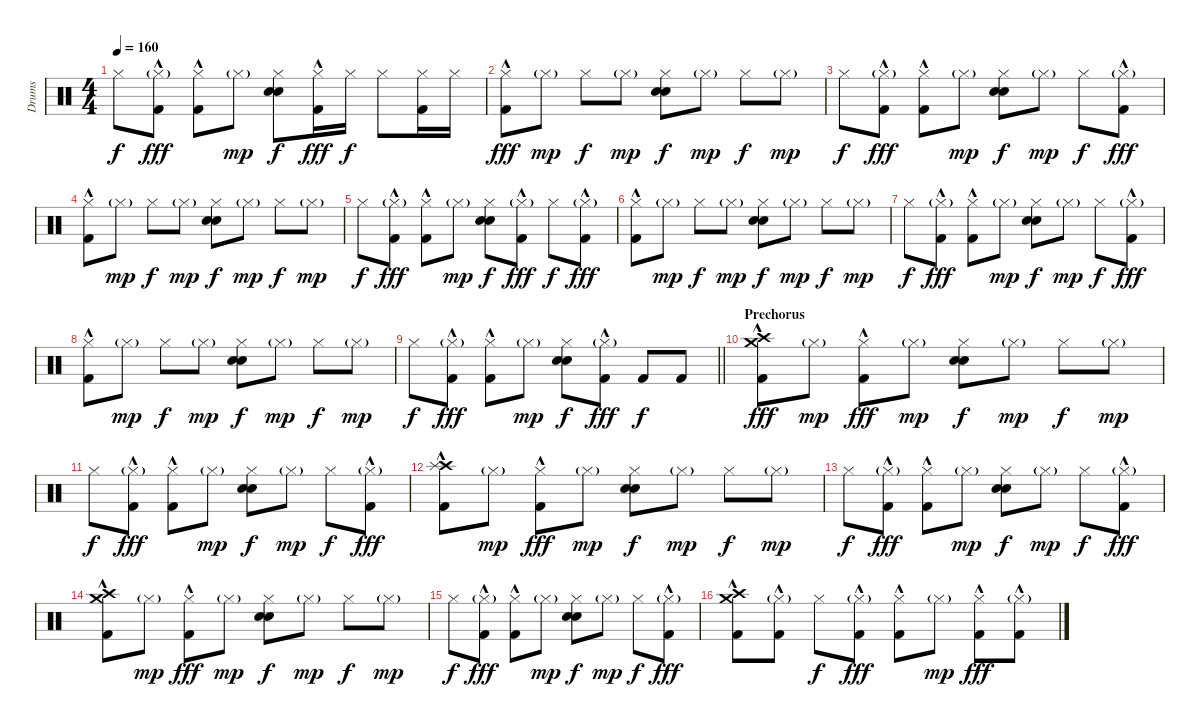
\track ("Drums" "Drums") {instrument percussion}
\staff {score}
\articulation defaults
\ts (4 4)
\tempo 160
\clef neutral
\ks c "Hi-Hat (closed)".8{dy f}
("Hi-Hat (closed)"{g} "Kick (hit) 2"{hac}).8{dy fff} ("Hi-Hat (closed)" "Kick (hit) 2"{hac}).8 "Hi-Hat (closed)"{g}.8{dy mp} ("Hi-Hat (closed)" "Hand Clap (hit)" "Electric Snare (hit)").8{dy f} ("Hi-Hat (closed)" "Kick (hit) 2"{hac}).16{dy fff} "Hi-Hat (closed)".16{dy f} "Hi-Hat (closed)".8 ("Hi-Hat (closed)" "Kick (hit) 2").16 "Hi-Hat (closed)".16 |
("Hi-Hat (closed)" "Kick (hit) 2"{hac}).8{dy fff} "Hi-Hat (closed)"{g}.8{dy mp} "Hi-Hat (closed)".8{dy f} "Hi-Hat (closed)"{g}.8{dy mp} ("Hi-Hat (closed)" "Hand Clap (hit)" "Electric Snare (hit)").8{dy f} "Hi-Hat (closed)"{g}.8{dy mp} "Hi-Hat (closed)".8{dy f} "Hi-Hat (closed)"{g}.8{dy mp} |
"Hi-Hat (closed)".8{dy f} ("Hi-Hat (closed)"{g} "Kick (hit) 2"{hac}).8{dy fff} ("Hi-Hat (closed)" "Kick (hit) 2"{hac}).8 "Hi-Hat (closed)"{g}.8{dy mp} ("Hi-Hat (closed)" "Hand Clap (hit)" "Electric Snare (hit)").8{dy f} "Hi-Hat (closed)"{g}.8{dy mp} "Hi-Hat (closed)".8{dy f} ("Hi-Hat (closed)"{g} "Kick (hit) 2"{hac}).8{dy fff} |
("Hi-Hat (closed)" "Kick (hit) 2"{hac}).8 "Hi-Hat (closed)"{g}.8{dy mp} "Hi-Hat (closed)".8{dy f} "Hi-Hat (closed)"{g}.8{dy mp} ("Hi-Hat (closed)" "Hand Clap (hit)" "Electric Snare (hit)").8{dy f} "Hi-Hat (closed)"{g}.8{dy mp} "Hi-Hat (closed)".8{dy f} "Hi-Hat (closed)"{g}.8{dy mp} |
"Hi-Hat (closed)".8{dy f} ("Hi-Hat (closed)"{g} "Kick (hit) 2"{hac}).8{dy fff} ("Hi-Hat (closed)" "Kick (hit) 2"{hac}).8 "Hi-Hat (closed)"{g}.8{dy mp} ("Hi-Hat (closed)" "Hand Clap (hit)" "Electric Snare (hit)").8{dy f} ("Hi-Hat (closed)"{g} "Kick (hit) 2"{hac}).8{dy fff} "Hi-Hat (closed)".8{dy f} ("Hi-Hat (closed)"{g} "Kick (hit) 2"{hac}).8{dy fff} |
("Hi-Hat (closed)" "Kick (hit) 2"{hac}).8 "Hi-Hat (closed)"{g}.8{dy mp} "Hi-Hat (closed)".8{dy f} "Hi-Hat (closed)"{g}.8{dy mp} ("Hi-Hat (closed)" "Hand Clap (hit)" "Electric Snare (hit)").8{dy f} "Hi-Hat (closed)"{g}.8{dy mp} "Hi-Hat (closed)".8{dy f} "Hi-Hat (closed)"{g}.8{dy mp} |
"Hi-Hat (closed)".8{dy f} ("Hi-Hat (closed)"{g} "Kick (hit) 2"{hac}).8{dy fff} ("Hi-Hat (closed)" "Kick (hit) 2"{hac}).8 "Hi-Hat (closed)"{g}.8{dy mp} ("Hi-Hat (closed)" "Hand Clap (hit)" "Electric Snare (hit)").8{dy f} "Hi-Hat (closed)"{g}.8{dy mp} "Hi-Hat (closed)".8{dy f} ("Hi-Hat (closed)"{g} "Kick (hit) 2"{hac}).8{dy fff} |
("Hi-Hat (closed)" "Kick (hit) 2"{hac}).8 "Hi-Hat (closed)"{g}.8{dy mp} "Hi-Hat (closed)".8{dy f} "Hi-Hat (closed)"{g}.8{dy mp} ("Hi-Hat (closed)" "Hand Clap (hit)" "Electric Snare (hit)").8{dy f} "Hi-Hat (closed)"{g}.8{dy mp} "Hi-Hat (closed)".8{dy f} "Hi-Hat (closed)"{g}.8{dy mp} |
\barLineRight lightlight "Hi-Hat (closed)".8{dy f}
("Hi-Hat (closed)"{g} "Kick (hit) 2"{hac}).8{dy fff} ("Hi-Hat (closed)" "Kick (hit) 2"{hac}).8 "Hi-Hat (closed)"{g}.8{dy mp} ("Hi-Hat (closed)" "Hand Clap (hit)" "Electric Snare (hit)").8{dy f} ("Hi-Hat (closed)"{g} "Kick (hit) 2"{hac}).8{dy fff} "Kick (hit) 2".8{dy f} "Kick (hit) 2".8 |
\section ("" "Prechorus")
("Crash high (hit)" "Crash medium (hit)" "Kick (hit) 2"{hac}).8{dy fff} "Hi-Hat (closed)"{g}.8{dy mp} ("Hi-Hat (closed)" "Kick (hit) 2"{hac}).8{dy fff} "Hi-Hat (closed)"{g}.8{dy mp} ("Hi-Hat (closed)" "Hand Clap (hit)" "Electric Snare (hit)").8{dy f} "Hi-Hat (closed)"{g}.8{dy mp} "Hi-Hat (closed)".8{dy f} "Hi-Hat (closed)"{g}.8{dy mp} |
"Hi-Hat (closed)".8{dy f} ("Hi-Hat (closed)"{g} "Kick (hit) 2"{hac}).8{dy fff} ("Hi-Hat (closed)" "Kick (hit) 2"{hac}).8 "Hi-Hat (closed)"{g}.8{dy mp} ("Hi-Hat (closed)" "Hand Clap (hit)" "Electric Snare (hit)").8{dy f} "Hi-Hat (closed)"{g}.8{dy mp} "Hi-Hat (closed)".8{dy f} ("Hi-Hat (closed)"{g} "Kick (hit) 2"{hac}).8{dy fff} |
("Crash high (hit)" "Splash (hit)" "Kick (hit) 2"{hac}).8 "Hi-Hat (closed)"{g}.8{dy mp} ("Hi-Hat (closed)" "Kick (hit) 2"{hac}).8{dy fff} "Hi-Hat (closed)"{g}.8{dy mp} ("Hi-Hat (closed)" "Hand Clap (hit)" "Electric Snare (hit)").8{dy f} "Hi-Hat (closed)"{g}.8{dy mp} "Hi-Hat (closed)".8{dy f} "Hi-Hat (closed)"{g}.8{dy mp} |
"Hi-Hat (closed)".8{dy f} ("Hi-Hat (closed)"{g} "Kick (hit) 2"{hac}).8{dy fff} ("Hi-Hat (closed)" "Kick (hit) 2"{hac}).8 "Hi-Hat (closed)"{g}.8{dy mp} ("Hi-Hat (closed)" "Hand Clap (hit)" "Electric Snare (hit)").8{dy f} "Hi-Hat (closed)"{g}.8{dy mp} "Hi-Hat (closed)".8{dy f} ("Hi-Hat (closed)"{g} "Kick (hit) 2"{hac}).8{dy fff} |
("Crash high (hit)" "Crash medium (hit)" "Kick (hit) 2"{hac}).8 "Hi-Hat (closed)"{g}.8{dy mp} ("Hi-Hat (closed)" "Kick (hit) 2"{hac}).8{dy fff} "Hi-Hat (closed)"{g}.8{dy mp} ("Hi-Hat (closed)" "Hand Clap (hit)" "Electric Snare (hit)").8{dy f} "Hi-Hat (closed)"{g}.8{dy mp} "Hi-Hat (closed)".8{dy f} "Hi-Hat (closed)"{g}.8{dy mp} |
"Hi-Hat (closed)".8{dy f} ("Hi-Hat (closed)"{g} "Kick (hit) 2"{hac}).8{dy fff} ("Hi-Hat (closed)" "Kick (hit) 2"{hac}).8 "Hi-Hat (closed)"{g}.8{dy mp} ("Hi-Hat (closed)" "Hand Clap (hit)" "Electric Snare (hit)").8{dy f} "Hi-Hat (closed)"{g}.8{dy mp} "Hi-Hat (closed)".8{dy f} ("Hi-Hat (closed)"{g} "Kick (hit) 2"{hac}).8{dy fff} |
("Crash high (hit)" "Crash medium (hit)" "Kick (hit) 2"{hac}).8 ("Hi-Hat (closed)"{g} "Kick (hit) 2"{hac}).8 "Hi-Hat (closed)".8{dy f} ("Hi-Hat (closed)"{g} "Kick (hit) 2"{hac}).8{dy fff} ("Hi-Hat (closed)" "Kick (hit) 2"{hac}).8 "Hi-Hat (closed)"{g}.8{dy mp} ("Hi-Hat (closed)" "Kick (hit) 2"{hac}).8{dy fff} ("Hi-Hat (closed)"{g} "Kick (hit) 2"{hac}).8
